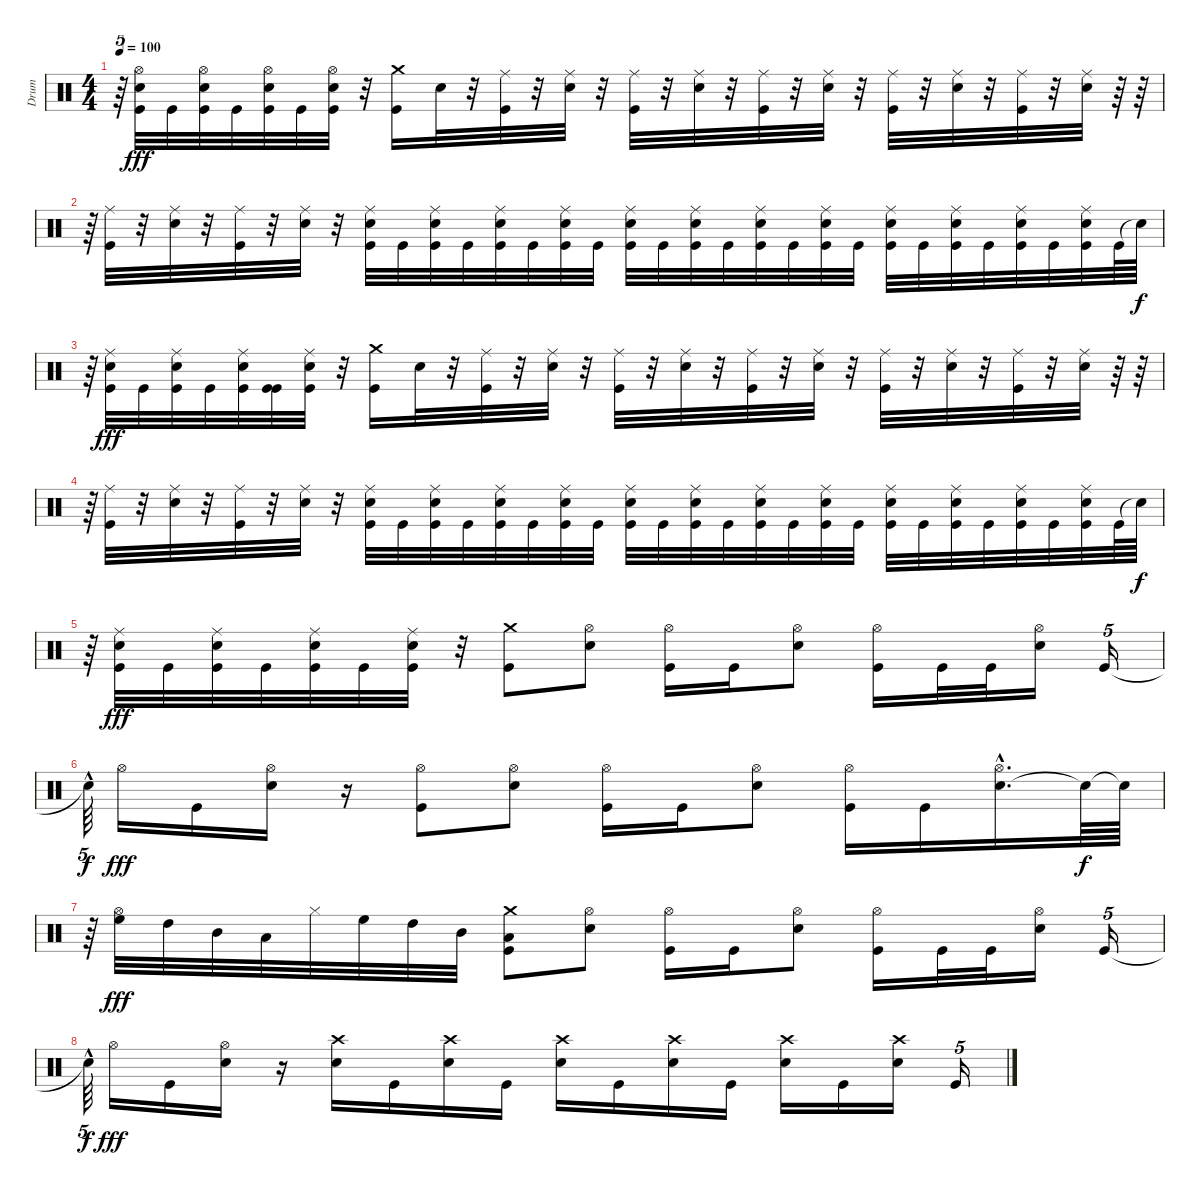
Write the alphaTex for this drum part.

\track ("Drum" "Drum") {instrument percussion}
\staff {score}
\articulation defaults
\ts (4 4)
\tempo 100
\clef neutral
\ks c
r.64{tu (5 4) dy f} ("Hi-Hat (open)" "Kick (hit)" "Snare (hit) 2").32{dy fff} "Kick (hit)".32 ("Kick (hit)" "Hi-Hat (open)" "Snare (hit) 2").32 "Kick (hit)".32 ("Kick (hit)" "Hi-Hat (open)" "Snare (hit) 2").32 "Kick (hit)".32 ("Hi-Hat (open)" "Snare (hit) 2" "Kick (hit)").32 r.32 ("Kick (hit)" "Crash medium (hit)").16 "Snare (hit) 2".32 r.32 ("Kick (hit)" "Ride (middle)").32 r.32 ("Snare (hit) 2" "Ride (middle)").32 r.32 ("Ride (middle)" "Kick (hit)").32 r.32 ("Snare (hit) 2" "Ride (middle)").32 r.32 ("Ride (middle)" "Kick (hit)").32 r.32 ("Snare (hit) 2" "Ride (middle)").32 r.32 ("Kick (hit)" "Ride (middle)").32 r.32 ("Ride (middle)" "Snare (hit) 2").32 r.32 ("Kick (hit)" "Ride (middle)").32 r.32 ("Snare (hit) 2" "Ride (middle)").32 r.64 r.64 |
r.64{tu (5 4)} ("Kick (hit)" "Ride (middle)").32 r.32 ("Ride (middle)" "Snare (hit) 2").32 r.32 ("Kick (hit)" "Ride (middle)").32 r.32 ("Ride (middle)" "Snare (hit) 2").32 r.32 ("Kick (hit)" "Snare (hit) 2" "Ride (middle)").32 "Kick (hit)".32 ("Kick (hit)" "Snare (hit) 2" "Ride (middle)").32 "Kick (hit)".32 ("Snare (hit) 2" "Kick (hit)" "Ride (middle)").32 "Kick (hit)".32 ("Ride (middle)" "Kick (hit)" "Snare (hit) 2").32 "Kick (hit)".32 ("Kick (hit)" "Ride (middle)" "Snare (hit) 2").32 "Kick (hit)".32 ("Snare (hit) 2" "Kick (hit)" "Ride (middle)").32 "Kick (hit)".32 ("Ride (middle)" "Kick (hit)" "Snare (hit) 2").32 "Kick (hit)".32 ("Ride (middle)" "Kick (hit)" "Snare (hit) 2").32 "Kick (hit)".32 ("Kick (hit)" "Snare (hit) 2" "Ride (middle)").32 "Kick (hit)".32 ("Ride (middle)" "Snare (hit) 2" "Kick (hit)").32 "Kick (hit)".32 ("Kick (hit)" "Snare (hit) 2" "Ride (middle)").32 "Kick (hit)".32 ("Snare (hit) 2" "Ride (middle)" "Kick (hit)").32 "Kick (hit)".64 "Snare (hit)"{t}.64{dy f} |
r.64{tu (5 4)} ("Snare (hit) 2" "Kick (hit)" "Ride (middle)").32{dy fff} "Kick (hit)".32 ("Kick (hit)" "Ride (middle)" "Snare (hit) 2").32 "Kick (hit)".32 ("Snare (hit) 2" "Kick (hit)" "Ride (middle)").32 ("Kick (hit)" "Kick (hit)").32 ("Kick (hit)" "Ride (middle)" "Snare (hit) 2").32 r.32 ("Kick (hit)" "Crash medium (hit)").16 "Snare (hit) 2".32 r.32 ("Kick (hit)" "Ride (middle)").32 r.32 ("Snare (hit) 2" "Ride (middle)").32 r.32 ("Kick (hit)" "Ride (middle)").32 r.32 ("Ride (middle)" "Snare (hit) 2").32 r.32 ("Ride (middle)" "Kick (hit)").32 r.32 ("Ride (middle)" "Snare (hit) 2").32 r.32 ("Ride (middle)" "Kick (hit)").32 r.32 ("Ride (middle)" "Snare (hit) 2").32 r.32 ("Kick (hit)" "Ride (middle)").32 r.32 ("Snare (hit) 2" "Ride (middle)").32 r.64 r.64 |
r.64{tu (5 4)} ("Kick (hit)" "Ride (middle)").32 r.32 ("Snare (hit) 2" "Ride (middle)").32 r.32 ("Kick (hit)" "Ride (middle)").32 r.32 ("Ride (middle)" "Snare (hit) 2").32 r.32 ("Ride (middle)" "Kick (hit)" "Snare (hit) 2").32 "Kick (hit)".32 ("Ride (middle)" "Snare (hit) 2" "Kick (hit)").32 "Kick (hit)".32 ("Kick (hit)" "Snare (hit) 2" "Ride (middle)").32 "Kick (hit)".32 ("Ride (middle)" "Snare (hit) 2" "Kick (hit)").32 "Kick (hit)".32 ("Snare (hit) 2" "Ride (middle)" "Kick (hit)").32 "Kick (hit)".32 ("Snare (hit) 2" "Ride (middle)" "Kick (hit)").32 "Kick (hit)".32 ("Ride (middle)" "Snare (hit) 2" "Kick (hit)").32 "Kick (hit)".32 ("Snare (hit) 2" "Ride (middle)" "Kick (hit)").32 "Kick (hit)".32 ("Snare (hit) 2" "Ride (middle)" "Kick (hit)").32 "Kick (hit)".32 ("Snare (hit) 2" "Ride (middle)" "Kick (hit)").32 "Kick (hit)".32 ("Snare (hit) 2" "Ride (middle)" "Kick (hit)").32 "Kick (hit)".32 ("Kick (hit)" "Snare (hit) 2" "Ride (middle)").32 "Kick (hit)".64 "Snare (hit)"{t}.64{dy f} |
r.64{tu (5 4)} ("Snare (hit) 2" "Ride (middle)" "Kick (hit)").32{dy fff} "Kick (hit)".32 ("Ride (middle)" "Snare (hit) 2" "Kick (hit)").32 "Kick (hit)".32 ("Ride (middle)" "Kick (hit)" "Snare (hit) 2").32 "Kick (hit)".32 ("Snare (hit) 2" "Kick (hit)" "Ride (middle)").32 r.32 ("Kick (hit)" "Crash medium (hit)").8 ("Snare (hit) 2" "Hi-Hat (open)").8 ("Hi-Hat (open)" "Kick (hit)").16 "Kick (hit)".16 ("Hi-Hat (open)" "Snare (hit) 2").8 ("Kick (hit)" "Hi-Hat (open)").16 "Kick (hit)".32 "Kick (hit)".32 ("Hi-Hat (open)" "Snare (hit) 2").16 "Kick (hit)".16{tu (5 4)} |
"Snare (hit)"{hac t}.64{tu (5 4) dy f} "Hi-Hat (open)".16{dy fff} "Kick (hit)".16 ("Snare (hit) 2" "Hi-Hat (open)").16 r.16 ("Hi-Hat (open)" "Kick (hit)").8 ("Hi-Hat (open)" "Snare (hit) 2").8 ("Hi-Hat (open)" "Kick (hit)").16 "Kick (hit)".16 ("Snare (hit) 2" "Hi-Hat (open)").8 ("Kick (hit)" "Hi-Hat (open)").16 "Kick (hit)".16 ("Snare (hit) 2"{hac} "Hi-Hat (open)").16{d} "Snare (hit)"{t}.64{dy f} "Snare (hit)"{t}.64 |
r.64{tu (5 4)} ("Hi-Hat (open)" "High Floor Tom (hit)").32{dy fff} "High Tom (hit)".32 "Mid Tom (hit)".32 "Low Tom (hit)".32 "Hi-Hat (closed)".32 "High Floor Tom (hit)".32 "High Tom (hit)".32 "Mid Tom (hit)".32 ("Kick (hit)" "Low Tom (hit)" "Crash medium (hit)").8 ("Hi-Hat (open)" "Snare (hit) 2").8 ("Kick (hit)" "Hi-Hat (open)").16 "Kick (hit)".16 ("Hi-Hat (open)" "Snare (hit) 2").8 ("Hi-Hat (open)" "Kick (hit)").16 "Kick (hit)".32 "Kick (hit)".32 ("Snare (hit) 2" "Hi-Hat (open)").16 "Kick (hit)".16{tu (5 4)} |
"Snare (hit)"{hac t}.64{tu (5 4) dy f} "Hi-Hat (open)".16{dy fff} "Kick (hit)".16 ("Snare (hit) 2" "Hi-Hat (open)").16 r.16 ("Snare (hit) 2" "Crash high (hit)").16 "Kick (hit)".16 ("Snare (hit) 2" "Crash high (hit)").16 "Kick (hit)".16 ("Snare (hit) 2" "Crash high (hit)").16 "Kick (hit)".16 ("Crash high (hit)" "Snare (hit) 2").16 "Kick (hit)".16 ("Crash high (hit)" "Snare (hit) 2").16 "Kick (hit)".16 ("Snare (hit) 2" "Crash high (hit)").16 "Kick (hit)".16{tu (5 4)}
